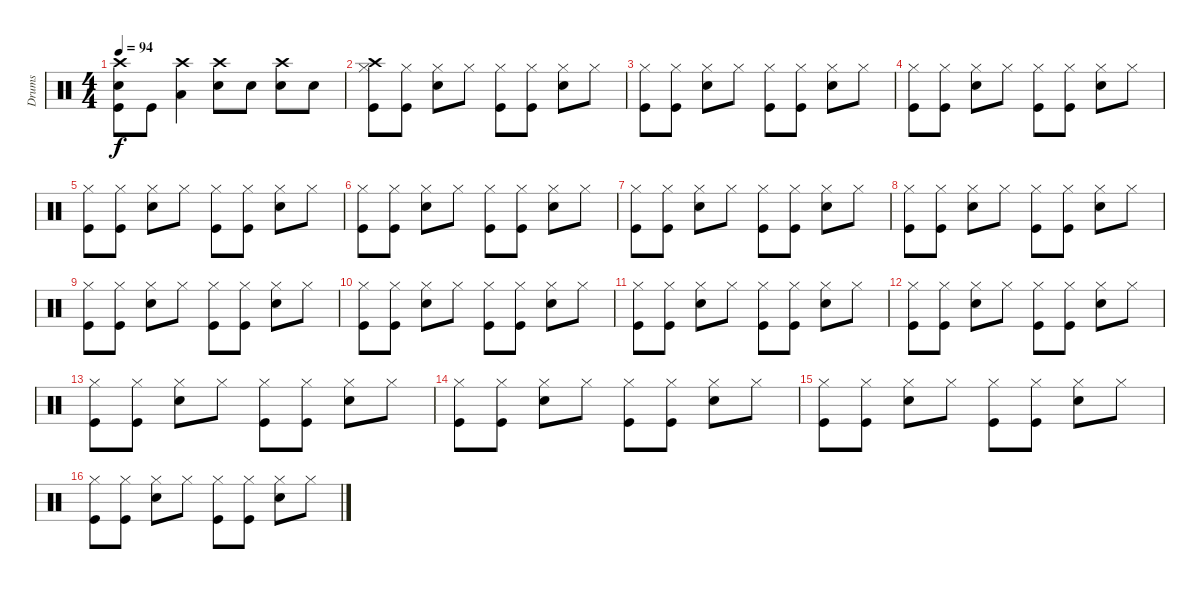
\track ("Drums" "Drums") {instrument percussion}
\staff {score}
\articulation defaults
\ts (4 4)
\tempo 94
\clef neutral
\ks c
("Crash high (hit)" "Snare (hit) 2" "Kick (hit)").8{dy f} "Kick (hit)".8 ("Crash high (hit)" "Low Tom (hit)").4 ("Crash high (hit)" "Snare (hit) 2").8 "Snare (hit) 2".8 ("Crash high (hit)" "Snare (hit) 2").8 "Snare (hit) 2".8 |
("Crash high (hit)" "Hi-Hat (closed)" "Kick (hit)").8 ("Hi-Hat (closed)" "Kick (hit)").8 ("Hi-Hat (closed)" "Snare (hit) 2").8 "Hi-Hat (closed)".8 ("Hi-Hat (closed)" "Kick (hit)").8 ("Hi-Hat (closed)" "Kick (hit)").8 ("Hi-Hat (closed)" "Snare (hit) 2").8 "Hi-Hat (closed)".8 |
("Hi-Hat (closed)" "Kick (hit)").8 ("Hi-Hat (closed)" "Kick (hit)").8 ("Hi-Hat (closed)" "Snare (hit) 2").8 "Hi-Hat (closed)".8 ("Hi-Hat (closed)" "Kick (hit)").8 ("Hi-Hat (closed)" "Kick (hit)").8 ("Hi-Hat (closed)" "Snare (hit) 2").8 "Hi-Hat (closed)".8 |
("Hi-Hat (closed)" "Kick (hit)").8 ("Hi-Hat (closed)" "Kick (hit)").8 ("Hi-Hat (closed)" "Snare (hit) 2").8 "Hi-Hat (closed)".8 ("Hi-Hat (closed)" "Kick (hit)").8 ("Hi-Hat (closed)" "Kick (hit)").8 ("Hi-Hat (closed)" "Snare (hit) 2").8 "Hi-Hat (closed)".8 |
("Hi-Hat (closed)" "Kick (hit)").8 ("Hi-Hat (closed)" "Kick (hit)").8 ("Hi-Hat (closed)" "Snare (hit) 2").8 "Hi-Hat (closed)".8 ("Hi-Hat (closed)" "Kick (hit)").8 ("Hi-Hat (closed)" "Kick (hit)").8 ("Hi-Hat (closed)" "Snare (hit) 2").8 "Hi-Hat (closed)".8 |
("Hi-Hat (closed)" "Kick (hit)").8 ("Hi-Hat (closed)" "Kick (hit)").8 ("Hi-Hat (closed)" "Snare (hit) 2").8 "Hi-Hat (closed)".8 ("Hi-Hat (closed)" "Kick (hit)").8 ("Hi-Hat (closed)" "Kick (hit)").8 ("Hi-Hat (closed)" "Snare (hit) 2").8 "Hi-Hat (closed)".8 |
("Hi-Hat (closed)" "Kick (hit)").8 ("Hi-Hat (closed)" "Kick (hit)").8 ("Hi-Hat (closed)" "Snare (hit) 2").8 "Hi-Hat (closed)".8 ("Hi-Hat (closed)" "Kick (hit)").8 ("Hi-Hat (closed)" "Kick (hit)").8 ("Hi-Hat (closed)" "Snare (hit) 2").8 "Hi-Hat (closed)".8 |
("Hi-Hat (closed)" "Kick (hit)").8 ("Hi-Hat (closed)" "Kick (hit)").8 ("Hi-Hat (closed)" "Snare (hit) 2").8 "Hi-Hat (closed)".8 ("Hi-Hat (closed)" "Kick (hit)").8 ("Hi-Hat (closed)" "Kick (hit)").8 ("Hi-Hat (closed)" "Snare (hit) 2").8 "Hi-Hat (closed)".8 |
("Hi-Hat (closed)" "Kick (hit)").8 ("Hi-Hat (closed)" "Kick (hit)").8 ("Hi-Hat (closed)" "Snare (hit) 2").8 "Hi-Hat (closed)".8 ("Hi-Hat (closed)" "Kick (hit)").8 ("Hi-Hat (closed)" "Kick (hit)").8 ("Hi-Hat (closed)" "Snare (hit) 2").8 "Hi-Hat (closed)".8 |
("Hi-Hat (closed)" "Kick (hit)").8 ("Hi-Hat (closed)" "Kick (hit)").8 ("Hi-Hat (closed)" "Snare (hit) 2").8 "Hi-Hat (closed)".8 ("Hi-Hat (closed)" "Kick (hit)").8 ("Hi-Hat (closed)" "Kick (hit)").8 ("Hi-Hat (closed)" "Snare (hit) 2").8 "Hi-Hat (closed)".8 |
("Hi-Hat (closed)" "Kick (hit)").8 ("Hi-Hat (closed)" "Kick (hit)").8 ("Hi-Hat (closed)" "Snare (hit) 2").8 "Hi-Hat (closed)".8 ("Hi-Hat (closed)" "Kick (hit)").8 ("Hi-Hat (closed)" "Kick (hit)").8 ("Hi-Hat (closed)" "Snare (hit) 2").8 "Hi-Hat (closed)".8 |
("Hi-Hat (closed)" "Kick (hit)").8 ("Hi-Hat (closed)" "Kick (hit)").8 ("Hi-Hat (closed)" "Snare (hit) 2").8 "Hi-Hat (closed)".8 ("Hi-Hat (closed)" "Kick (hit)").8 ("Hi-Hat (closed)" "Kick (hit)").8 ("Hi-Hat (closed)" "Snare (hit) 2").8 "Hi-Hat (closed)".8 |
("Hi-Hat (closed)" "Kick (hit)").8 ("Hi-Hat (closed)" "Kick (hit)").8 ("Hi-Hat (closed)" "Snare (hit) 2").8 "Hi-Hat (closed)".8 ("Hi-Hat (closed)" "Kick (hit)").8 ("Hi-Hat (closed)" "Kick (hit)").8 ("Hi-Hat (closed)" "Snare (hit) 2").8 "Hi-Hat (closed)".8 |
("Hi-Hat (closed)" "Kick (hit)").8 ("Hi-Hat (closed)" "Kick (hit)").8 ("Hi-Hat (closed)" "Snare (hit) 2").8 "Hi-Hat (closed)".8 ("Hi-Hat (closed)" "Kick (hit)").8 ("Hi-Hat (closed)" "Kick (hit)").8 ("Hi-Hat (closed)" "Snare (hit) 2").8 "Hi-Hat (closed)".8 |
("Hi-Hat (closed)" "Kick (hit)").8 ("Hi-Hat (closed)" "Kick (hit)").8 ("Hi-Hat (closed)" "Snare (hit) 2").8 "Hi-Hat (closed)".8 ("Hi-Hat (closed)" "Kick (hit)").8 ("Hi-Hat (closed)" "Kick (hit)").8 ("Hi-Hat (closed)" "Snare (hit) 2").8 "Hi-Hat (closed)".8 |
("Hi-Hat (closed)" "Kick (hit)").8 ("Hi-Hat (closed)" "Kick (hit)").8 ("Hi-Hat (closed)" "Snare (hit) 2").8 "Hi-Hat (closed)".8 ("Hi-Hat (closed)" "Kick (hit)").8 ("Hi-Hat (closed)" "Kick (hit)").8 ("Hi-Hat (closed)" "Snare (hit) 2").8 "Hi-Hat (closed)".8
